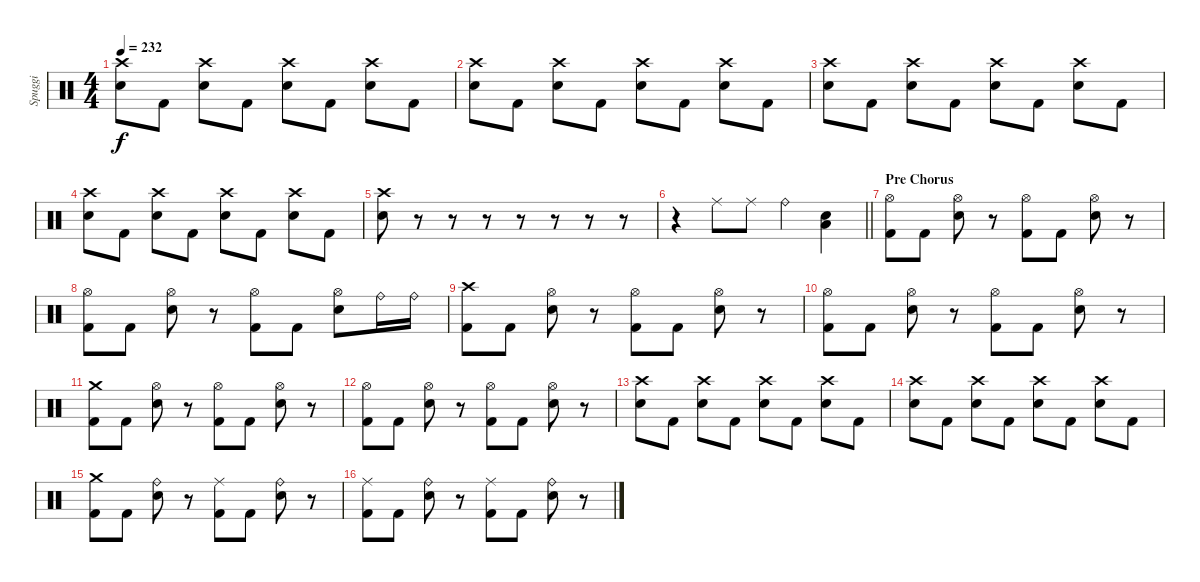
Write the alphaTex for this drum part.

\track ("Spuggi" "Spuggi") {instrument percussion}
\staff {score}
\articulation defaults
\ts (4 4)
\tempo 232
\clef neutral
\ks c
("Crash high (hit)" "Snare (hit) 2").8{dy f} "Kick (hit) 2".8 ("Crash high (hit)" "Snare (hit) 2").8 "Kick (hit) 2".8 ("Crash high (hit)" "Snare (hit) 2").8 "Kick (hit) 2".8 ("Crash high (hit)" "Snare (hit) 2").8 "Kick (hit) 2".8 |
("Crash high (hit)" "Snare (hit) 2").8 "Kick (hit) 2".8 ("Crash high (hit)" "Snare (hit) 2").8 "Kick (hit) 2".8 ("Crash high (hit)" "Snare (hit) 2").8 "Kick (hit) 2".8 ("Crash high (hit)" "Snare (hit) 2").8 "Kick (hit) 2".8 |
("Crash high (hit)" "Snare (hit) 2").8 "Kick (hit) 2".8 ("Crash high (hit)" "Snare (hit) 2").8 "Kick (hit) 2".8 ("Crash high (hit)" "Snare (hit) 2").8 "Kick (hit) 2".8 ("Crash high (hit)" "Snare (hit) 2").8 "Kick (hit) 2".8 |
("Crash high (hit)" "Snare (hit) 2").8 "Kick (hit) 2".8 ("Crash high (hit)" "Snare (hit) 2").8 "Kick (hit) 2".8 ("Crash high (hit)" "Snare (hit) 2").8 "Kick (hit) 2".8 ("Crash high (hit)" "Snare (hit) 2").8 "Kick (hit) 2".8 |
("Crash high (hit)" "Snare (hit) 2").8 r.8 r.8 r.8 r.8 r.8 r.8 r.8 |
\barLineRight lightlight
r.4 "Ride (middle)".8 "Ride (middle)".8 "Ride (bell)".4 ("Snare (hit) 2" "Low Tom (hit)").4 |
\section ("" "Pre Chorus")
("Hi-Hat (open)" "Kick (hit) 2").8 "Kick (hit) 2".8 ("Hi-Hat (open)" "Snare (hit) 2").8 r.8 ("Hi-Hat (open)" "Kick (hit) 2").8 "Kick (hit) 2".8 ("Hi-Hat (open)" "Snare (hit) 2").8 r.8 |
("Hi-Hat (open)" "Kick (hit) 2").8 "Kick (hit) 2".8 ("Hi-Hat (open)" "Snare (hit) 2").8 r.8 ("Hi-Hat (open)" "Kick (hit) 2").8 "Kick (hit) 2".8 ("Hi-Hat (open)" "Snare (hit) 2").8 "Ride (bell)".16 "Ride (bell)".16 |
("Crash high (hit)" "Kick (hit) 2").8 "Kick (hit) 2".8 ("Hi-Hat (open)" "Snare (hit) 2").8 r.8 ("Hi-Hat (open)" "Kick (hit) 2").8 "Kick (hit) 2".8 ("Hi-Hat (open)" "Snare (hit) 2").8 r.8 |
("Hi-Hat (open)" "Kick (hit) 2").8 "Kick (hit) 2".8 ("Hi-Hat (open)" "Snare (hit) 2").8 r.8 ("Hi-Hat (open)" "Kick (hit) 2").8 "Kick (hit) 2".8 ("Hi-Hat (open)" "Snare (hit) 2").8 r.8 |
("Crash medium (hit)" "Kick (hit) 2").8 "Kick (hit) 2".8 ("Hi-Hat (open)" "Snare (hit) 2").8 r.8 ("Hi-Hat (open)" "Kick (hit) 2").8 "Kick (hit) 2".8 ("Hi-Hat (open)" "Snare (hit) 2").8 r.8 |
("Hi-Hat (open)" "Kick (hit) 2").8 "Kick (hit) 2".8 ("Hi-Hat (open)" "Snare (hit) 2").8 r.8 ("Hi-Hat (open)" "Kick (hit) 2").8 "Kick (hit) 2".8 ("Hi-Hat (open)" "Snare (hit) 2").8 r.8 |
("Crash high (hit)" "Snare (hit) 2").8 "Kick (hit) 2".8 ("Crash high (hit)" "Snare (hit) 2").8 "Kick (hit) 2".8 ("Crash high (hit)" "Snare (hit) 2").8 "Kick (hit) 2".8 ("Crash high (hit)" "Snare (hit) 2").8 "Kick (hit) 2".8 |
("Crash high (hit)" "Snare (hit) 2").8 "Kick (hit) 2".8 ("Crash high (hit)" "Snare (hit) 2").8 "Kick (hit) 2".8 ("Crash high (hit)" "Snare (hit) 2").8 "Kick (hit) 2".8 ("Crash high (hit)" "Snare (hit) 2").8 "Kick (hit) 2".8 |
("Crash medium (hit)" "Kick (hit) 2").8 "Kick (hit) 2".8 ("Ride (bell)" "Snare (hit) 2").8 r.8 ("Ride (middle)" "Kick (hit) 2").8 "Kick (hit) 2".8 ("Ride (bell)" "Snare (hit) 2").8 r.8 |
("Ride (middle)" "Kick (hit) 2").8 "Kick (hit) 2".8 ("Ride (bell)" "Snare (hit) 2").8 r.8 ("Ride (middle)" "Kick (hit) 2").8 "Kick (hit) 2".8 ("Ride (bell)" "Snare (hit) 2").8 r.8
